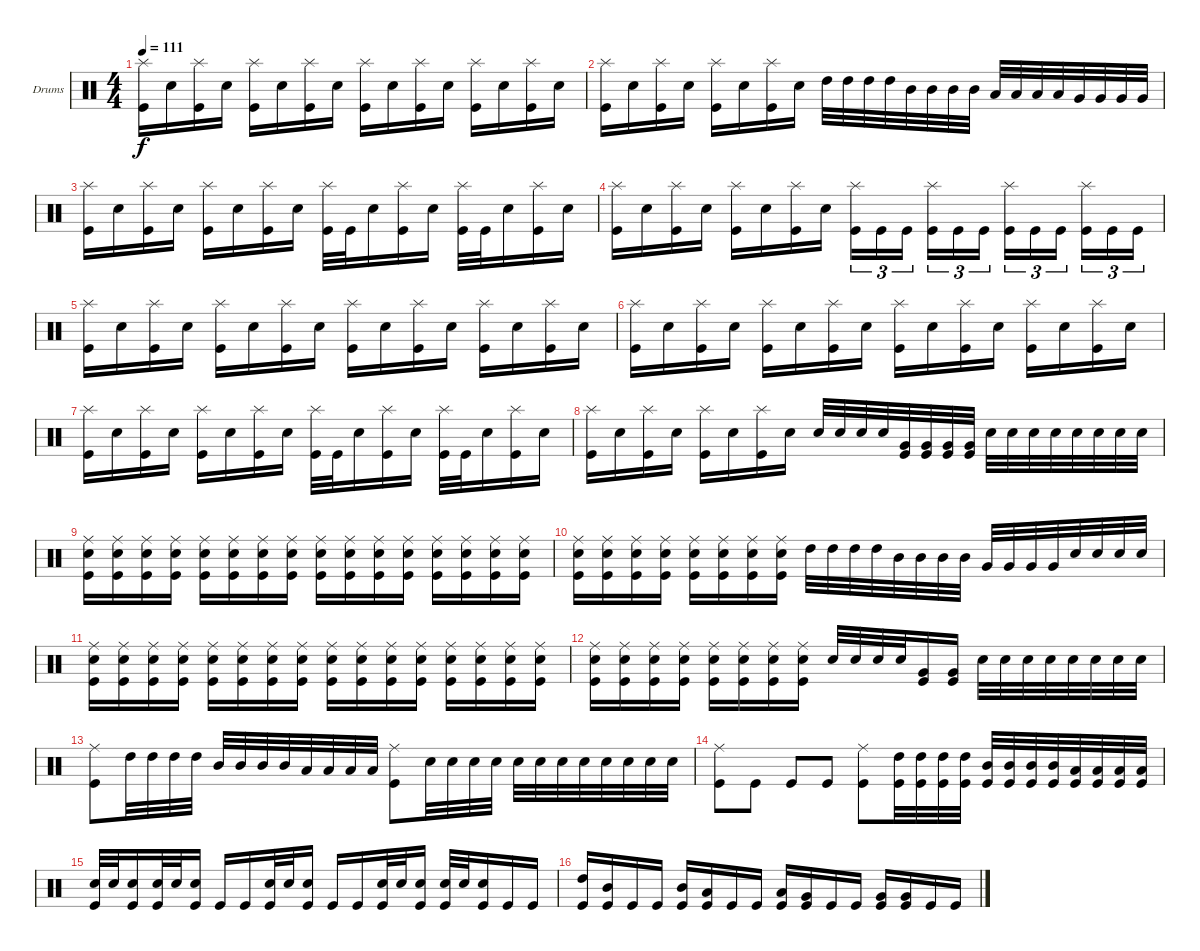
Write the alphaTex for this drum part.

\bracketExtendMode groupsimilarinstruments
\firstSystemTrackNameOrientation horizontal
\otherSystemsTrackNameOrientation horizontal
\track ("Drumkit" "Drums") {instrument percussion}
\staff {score}
\articulation defaults
\ts (4 4)
\tempo 111
\clef neutral
\ks c
("Splash (hit)" "Kick (hit)").16{dy f} "Snare (hit) 2".16 ("Splash (hit)" "Kick (hit)").16 "Snare (hit) 2".16 ("Splash (hit)" "Kick (hit)").16 "Snare (hit) 2".16 ("Splash (hit)" "Kick (hit)").16 "Snare (hit) 2".16 ("Splash (hit)" "Kick (hit)").16 "Snare (hit) 2".16 ("Splash (hit)" "Kick (hit)").16 "Snare (hit) 2".16 ("Splash (hit)" "Kick (hit)").16 "Snare (hit) 2".16 ("Splash (hit)" "Kick (hit)").16 "Snare (hit) 2".16 |
("Splash (hit)" "Kick (hit)").16 "Snare (hit) 2".16 ("Splash (hit)" "Kick (hit)").16 "Snare (hit) 2".16 ("Splash (hit)" "Kick (hit)").16 "Snare (hit) 2".16 ("Splash (hit)" "Kick (hit)").16 "Snare (hit) 2".16 "High Tom (hit)".32 "High Tom (hit)".32 "High Tom (hit)".32 "High Tom (hit)".32 "Mid Tom (hit)".32 "Mid Tom (hit)".32 "Mid Tom (hit)".32 "Mid Tom (hit)".32 "Low Tom (hit)".32 "Low Tom (hit)".32 "Low Tom (hit)".32 "Low Tom (hit)".32 "Very Low Tom (hit)".32 "Very Low Tom (hit)".32 "Very Low Tom (hit)".32 "Very Low Tom (hit)".32 |
("Splash (hit)" "Kick (hit)").16 "Snare (hit) 2".16 ("Splash (hit)" "Kick (hit)").16 "Snare (hit) 2".16 ("Splash (hit)" "Kick (hit)").16 "Snare (hit) 2".16 ("Splash (hit)" "Kick (hit)").16 "Snare (hit) 2".16 ("Splash (hit)" "Kick (hit)").32 "Kick (hit)".32 "Snare (hit) 2".16 ("Splash (hit)" "Kick (hit)").16 "Snare (hit) 2".16 ("Splash (hit)" "Kick (hit)").32 "Kick (hit)".32 "Snare (hit) 2".16 ("Splash (hit)" "Kick (hit)").16 "Snare (hit) 2".16 |
("Splash (hit)" "Kick (hit)").16 "Snare (hit) 2".16 ("Splash (hit)" "Kick (hit)").16 "Snare (hit) 2".16 ("Splash (hit)" "Kick (hit)").16 "Snare (hit) 2".16 ("Splash (hit)" "Kick (hit)").16 "Snare (hit) 2".16 ("Splash (hit)" "Kick (hit)").16{tu (3 2)} "Kick (hit)".16{tu (3 2)} "Kick (hit)".16{tu (3 2)} ("Splash (hit)" "Kick (hit)").16{tu (3 2)} "Kick (hit)".16{tu (3 2)} "Kick (hit)".16{tu (3 2)} ("Splash (hit)" "Kick (hit)").16{tu (3 2)} "Kick (hit)".16{tu (3 2)} "Kick (hit)".16{tu (3 2)} ("Splash (hit)" "Kick (hit)").16{tu (3 2)} "Kick (hit)".16{tu (3 2)} "Kick (hit)".16{tu (3 2)} |
("Splash (hit)" "Kick (hit)").16 "Snare (hit) 2".16 ("Splash (hit)" "Kick (hit)").16 "Snare (hit) 2".16 ("Splash (hit)" "Kick (hit)").16 "Snare (hit) 2".16 ("Splash (hit)" "Kick (hit)").16 "Snare (hit) 2".16 ("Splash (hit)" "Kick (hit)").16 "Snare (hit) 2".16 ("Splash (hit)" "Kick (hit)").16 "Snare (hit) 2".16 ("Splash (hit)" "Kick (hit)").16 "Snare (hit) 2".16 ("Splash (hit)" "Kick (hit)").16 "Snare (hit) 2".16 |
("Splash (hit)" "Kick (hit)").16 "Snare (hit) 2".16 ("Splash (hit)" "Kick (hit)").16 "Snare (hit) 2".16 ("Splash (hit)" "Kick (hit)").16 "Snare (hit) 2".16 ("Splash (hit)" "Kick (hit)").16 "Snare (hit) 2".16 ("Splash (hit)" "Kick (hit)").16 "Snare (hit) 2".16 ("Splash (hit)" "Kick (hit)").16 "Snare (hit) 2".16 ("Splash (hit)" "Kick (hit)").16 "Snare (hit) 2".16 ("Splash (hit)" "Kick (hit)").16 "Snare (hit) 2".16 |
("Splash (hit)" "Kick (hit)").16 "Snare (hit) 2".16 ("Splash (hit)" "Kick (hit)").16 "Snare (hit) 2".16 ("Splash (hit)" "Kick (hit)").16 "Snare (hit) 2".16 ("Splash (hit)" "Kick (hit)").16 "Snare (hit) 2".16 ("Splash (hit)" "Kick (hit)").32 "Kick (hit)".32 "Snare (hit) 2".16 ("Splash (hit)" "Kick (hit)").16 "Snare (hit) 2".16 ("Splash (hit)" "Kick (hit)").32 "Kick (hit)".32 "Snare (hit) 2".16 ("Splash (hit)" "Kick (hit)").16 "Snare (hit) 2".16 |
("Splash (hit)" "Kick (hit)").16 "Snare (hit) 2".16 ("Splash (hit)" "Kick (hit)").16 "Snare (hit) 2".16 ("Splash (hit)" "Kick (hit)").16 "Snare (hit) 2".16 ("Splash (hit)" "Kick (hit)").16 "Snare (hit) 2".16 "Snare (hit) 2".32 "Snare (hit) 2".32 "Snare (hit) 2".32 "Snare (hit) 2".32 ("Very Low Tom (hit)" "Kick (hit)").32 ("Very Low Tom (hit)" "Kick (hit)").32 ("Very Low Tom (hit)" "Kick (hit)").32 ("Very Low Tom (hit)" "Kick (hit)").32 "Snare (hit) 2".32 "Snare (hit) 2".32 "Snare (hit) 2".32 "Snare (hit) 2".32 "Snare (hit) 2".32 "Snare (hit) 2".32 "Snare (hit) 2".32 "Snare (hit) 2".32 |
("Ride (middle)" "Snare (hit) 2" "Kick (hit)").16 ("Ride (middle)" "Snare (hit) 2" "Kick (hit)").16 ("Ride (middle)" "Snare (hit) 2" "Kick (hit)").16 ("Ride (middle)" "Snare (hit) 2" "Kick (hit)").16 ("Ride (middle)" "Snare (hit) 2" "Kick (hit)").16 ("Ride (middle)" "Snare (hit) 2" "Kick (hit)").16 ("Ride (middle)" "Snare (hit) 2" "Kick (hit)").16 ("Ride (middle)" "Snare (hit) 2" "Kick (hit)").16 ("Ride (middle)" "Snare (hit) 2" "Kick (hit)").16 ("Ride (middle)" "Snare (hit) 2" "Kick (hit)").16 ("Ride (middle)" "Snare (hit) 2" "Kick (hit)").16 ("Ride (middle)" "Snare (hit) 2" "Kick (hit)").16 ("Ride (middle)" "Snare (hit) 2" "Kick (hit)").16 ("Ride (middle)" "Snare (hit) 2" "Kick (hit)").16 ("Ride (middle)" "Snare (hit) 2" "Kick (hit)").16 ("Ride (middle)" "Snare (hit) 2" "Kick (hit)").16 |
("Ride (middle)" "Snare (hit) 2" "Kick (hit)").16 ("Ride (middle)" "Snare (hit) 2" "Kick (hit)").16 ("Ride (middle)" "Snare (hit) 2" "Kick (hit)").16 ("Ride (middle)" "Snare (hit) 2" "Kick (hit)").16 ("Ride (middle)" "Snare (hit) 2" "Kick (hit)").16 ("Ride (middle)" "Snare (hit) 2" "Kick (hit)").16 ("Ride (middle)" "Snare (hit) 2" "Kick (hit)").16 ("Ride (middle)" "Snare (hit) 2" "Kick (hit)").16 "High Tom (hit)".32 "High Tom (hit)".32 "High Tom (hit)".32 "High Tom (hit)".32 "Mid Tom (hit)".32 "Mid Tom (hit)".32 "Mid Tom (hit)".32 "Mid Tom (hit)".32 "Very Low Tom (hit)".32 "Very Low Tom (hit)".32 "Very Low Tom (hit)".32 "Very Low Tom (hit)".32 "Snare (hit) 2".32 "Snare (hit) 2".32 "Snare (hit) 2".32 "Snare (hit) 2".32 |
("Ride (middle)" "Snare (hit) 2" "Kick (hit)").16 ("Ride (middle)" "Snare (hit) 2" "Kick (hit)").16 ("Ride (middle)" "Snare (hit) 2" "Kick (hit)").16 ("Ride (middle)" "Snare (hit) 2" "Kick (hit)").16 ("Ride (middle)" "Snare (hit) 2" "Kick (hit)").16 ("Ride (middle)" "Snare (hit) 2" "Kick (hit)").16 ("Ride (middle)" "Snare (hit) 2" "Kick (hit)").16 ("Ride (middle)" "Snare (hit) 2" "Kick (hit)").16 ("Ride (middle)" "Snare (hit) 2" "Kick (hit)").16 ("Ride (middle)" "Snare (hit) 2" "Kick (hit)").16 ("Ride (middle)" "Snare (hit) 2" "Kick (hit)").16 ("Ride (middle)" "Snare (hit) 2" "Kick (hit)").16 ("Ride (middle)" "Snare (hit) 2" "Kick (hit)").16 ("Ride (middle)" "Snare (hit) 2" "Kick (hit)").16 ("Ride (middle)" "Snare (hit) 2" "Kick (hit)").16 ("Ride (middle)" "Snare (hit) 2" "Kick (hit)").16 |
("Ride (middle)" "Snare (hit) 2" "Kick (hit)").16 ("Ride (middle)" "Snare (hit) 2" "Kick (hit)").16 ("Ride (middle)" "Snare (hit) 2" "Kick (hit)").16 ("Ride (middle)" "Snare (hit) 2" "Kick (hit)").16 ("Ride (middle)" "Snare (hit) 2" "Kick (hit)").16 ("Ride (middle)" "Snare (hit) 2" "Kick (hit)").16 ("Ride (middle)" "Snare (hit) 2" "Kick (hit)").16 ("Ride (middle)" "Snare (hit) 2" "Kick (hit)").16 "Snare (hit) 2".32 "Snare (hit) 2".32 "Snare (hit) 2".32 "Snare (hit) 2".32 ("Very Low Tom (hit)" "Kick (hit)").16 ("Very Low Tom (hit)" "Kick (hit)").16 "Snare (hit) 2".32 "Snare (hit) 2".32 "Snare (hit) 2".32 "Snare (hit) 2".32 "Snare (hit) 2".32 "Snare (hit) 2".32 "Snare (hit) 2".32 "Snare (hit) 2".32 |
("Ride (middle)" "Kick (hit)").8 "High Tom (hit)".32 "High Tom (hit)".32 "High Tom (hit)".32 "High Tom (hit)".32 "Mid Tom (hit)".32 "Mid Tom (hit)".32 "Mid Tom (hit)".32 "Mid Tom (hit)".32 "Low Tom (hit)".32 "Low Tom (hit)".32 "Low Tom (hit)".32 "Low Tom (hit)".32 ("Ride (middle)" "Kick (hit)").8 "Snare (hit) 2".32 "Snare (hit) 2".32 "Snare (hit) 2".32 "Snare (hit) 2".32 "Snare (hit) 2".32 "Snare (hit) 2".32 "Snare (hit) 2".32 "Snare (hit) 2".32 "Snare (hit) 2".32 "Snare (hit) 2".32 "Snare (hit) 2".32 "Snare (hit) 2".32 |
("Ride (middle)" "Kick (hit)").8 "Kick (hit)".8 "Kick (hit)".8 "Kick (hit)".8 ("Ride (middle)" "Kick (hit)").8 ("High Tom (hit)" "Kick (hit)").32 ("High Tom (hit)" "Kick (hit)").32 ("High Tom (hit)" "Kick (hit)").32 ("High Tom (hit)" "Kick (hit)").32 ("Mid Tom (hit)" "Kick (hit)").32 ("Mid Tom (hit)" "Kick (hit)").32 ("Mid Tom (hit)" "Kick (hit)").32 ("Mid Tom (hit)" "Kick (hit)").32 ("Low Tom (hit)" "Kick (hit)").32 ("Low Tom (hit)" "Kick (hit)").32 ("Low Tom (hit)" "Kick (hit)").32 ("Low Tom (hit)" "Kick (hit)").32 |
("Snare (hit) 2" "Kick (hit)").32 "Snare (hit) 2".32 ("Snare (hit) 2" "Kick (hit)").16 ("Snare (hit) 2" "Kick (hit)").32 "Snare (hit) 2".32 ("Snare (hit) 2" "Kick (hit)").16 "Kick (hit)".16 "Kick (hit)".16 ("Snare (hit) 2" "Kick (hit)").32 "Snare (hit) 2".32 ("Snare (hit) 2" "Kick (hit)").16 "Kick (hit)".16 "Kick (hit)".16 ("Snare (hit) 2" "Kick (hit)").32 "Snare (hit) 2".32 ("Snare (hit) 2" "Kick (hit)").16 ("Snare (hit) 2" "Kick (hit)").32 "Snare (hit) 2".32 ("Snare (hit) 2" "Kick (hit)").16 "Kick (hit)".16 "Kick (hit)".16 |
("High Tom (hit)" "Kick (hit)").16 ("Mid Tom (hit)" "Kick (hit)").16 "Kick (hit)".16 "Kick (hit)".16 ("Mid Tom (hit)" "Kick (hit)").16 ("Low Tom (hit)" "Kick (hit)").16 "Kick (hit)".16 "Kick (hit)".16 ("Low Tom (hit)" "Kick (hit)").16 ("Very Low Tom (hit)" "Kick (hit)").16 "Kick (hit)".16 "Kick (hit)".16 ("Very Low Tom (hit)" "Kick (hit)").16 ("Very Low Tom (hit)" "Kick (hit)").16 "Kick (hit)".16 "Kick (hit)".16
